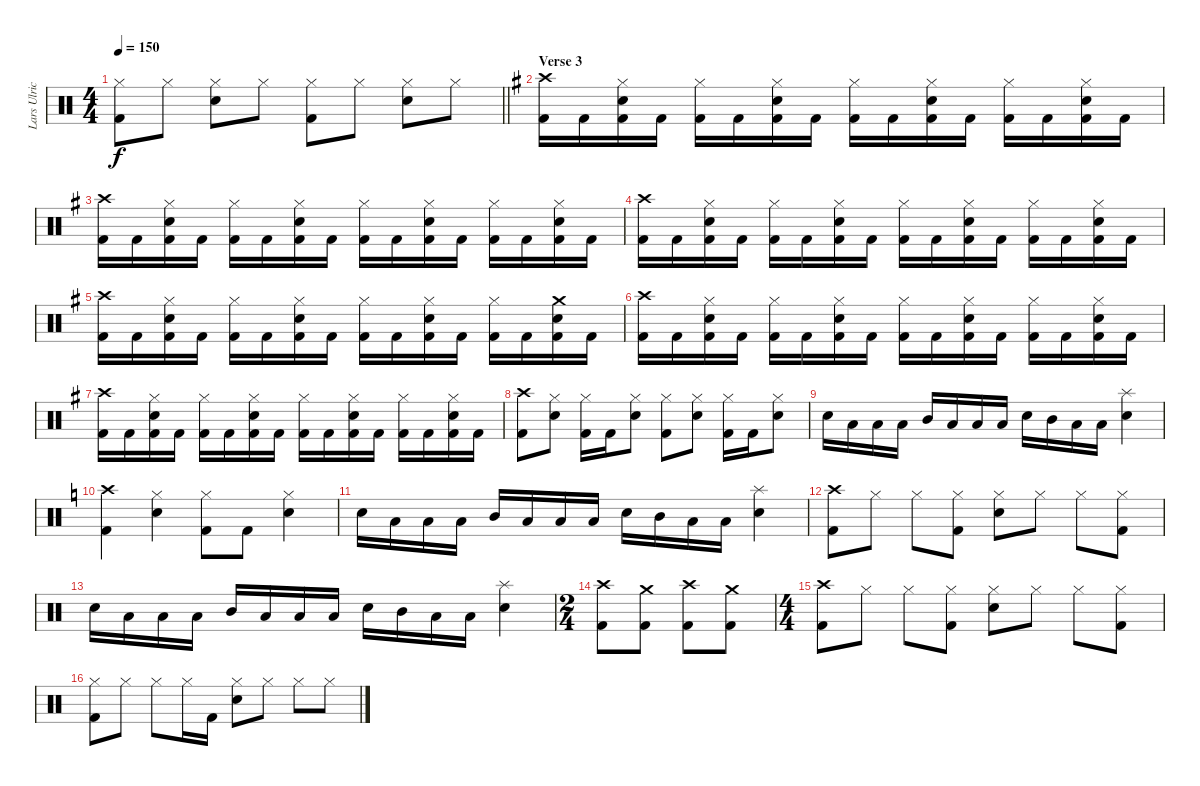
\track ("Lars Ulrich" "Lars Ulric") {instrument percussion}
\staff {score}
\articulation defaults
\ts (4 4)
\tempo 150
\clef neutral
\barLineRight lightlight
\ks c
("Hi-Hat (closed)" "Kick (hit) 2").8{dy f} "Hi-Hat (closed)".8 ("Hi-Hat (closed)" "Snare (hit) 2").8 "Hi-Hat (closed)".8 ("Hi-Hat (closed)" "Kick (hit) 2").8 "Hi-Hat (closed)".8 ("Hi-Hat (closed)" "Snare (hit) 2").8 "Hi-Hat (closed)".8 |
\section ("" "Verse 3")
\ks g
("Crash high (hit)" "Kick (hit) 2").16 "Kick (hit) 2".16 ("Hi-Hat (closed)" "Snare (hit) 2" "Kick (hit) 2").16 "Kick (hit) 2".16 ("Hi-Hat (closed)" "Kick (hit) 2").16 "Kick (hit) 2".16 ("Hi-Hat (closed)" "Snare (hit) 2" "Kick (hit) 2").16 "Kick (hit) 2".16 ("Hi-Hat (closed)" "Kick (hit) 2").16 "Kick (hit) 2".16 ("Hi-Hat (closed)" "Snare (hit) 2" "Kick (hit) 2").16 "Kick (hit) 2".16 ("Hi-Hat (closed)" "Kick (hit) 2").16 "Kick (hit) 2".16 ("Hi-Hat (closed)" "Snare (hit) 2" "Kick (hit) 2").16 "Kick (hit) 2".16 |
("Crash high (hit)" "Kick (hit) 2").16 "Kick (hit) 2".16 ("Hi-Hat (closed)" "Snare (hit) 2" "Kick (hit) 2").16 "Kick (hit) 2".16 ("Hi-Hat (closed)" "Kick (hit) 2").16 "Kick (hit) 2".16 ("Hi-Hat (closed)" "Snare (hit) 2" "Kick (hit) 2").16 "Kick (hit) 2".16 ("Hi-Hat (closed)" "Kick (hit) 2").16 "Kick (hit) 2".16 ("Hi-Hat (closed)" "Snare (hit) 2" "Kick (hit) 2").16 "Kick (hit) 2".16 ("Hi-Hat (closed)" "Kick (hit) 2").16 "Kick (hit) 2".16 ("Hi-Hat (closed)" "Snare (hit) 2" "Kick (hit) 2").16 "Kick (hit) 2".16 |
("Crash high (hit)" "Kick (hit) 2").16 "Kick (hit) 2".16 ("Hi-Hat (closed)" "Snare (hit) 2" "Kick (hit) 2").16 "Kick (hit) 2".16 ("Hi-Hat (closed)" "Kick (hit) 2").16 "Kick (hit) 2".16 ("Hi-Hat (closed)" "Snare (hit) 2" "Kick (hit) 2").16 "Kick (hit) 2".16 ("Hi-Hat (closed)" "Kick (hit) 2").16 "Kick (hit) 2".16 ("Hi-Hat (closed)" "Snare (hit) 2" "Kick (hit) 2").16 "Kick (hit) 2".16 ("Hi-Hat (closed)" "Kick (hit) 2").16 "Kick (hit) 2".16 ("Hi-Hat (closed)" "Snare (hit) 2" "Kick (hit) 2").16 "Kick (hit) 2".16 |
("Crash high (hit)" "Kick (hit) 2").16 "Kick (hit) 2".16 ("Hi-Hat (closed)" "Snare (hit) 2" "Kick (hit) 2").16 "Kick (hit) 2".16 ("Hi-Hat (closed)" "Kick (hit) 2").16 "Kick (hit) 2".16 ("Hi-Hat (closed)" "Snare (hit) 2" "Kick (hit) 2").16 "Kick (hit) 2".16 ("Hi-Hat (closed)" "Kick (hit) 2").16 "Kick (hit) 2".16 ("Hi-Hat (closed)" "Snare (hit) 2" "Kick (hit) 2").16 "Kick (hit) 2".16 ("Hi-Hat (closed)" "Kick (hit) 2").16 "Kick (hit) 2".16 ("Crash medium (hit)" "Snare (hit) 2" "Kick (hit) 2").16 "Kick (hit) 2".16 |
("Crash high (hit)" "Kick (hit) 2").16 "Kick (hit) 2".16 ("Hi-Hat (closed)" "Snare (hit) 2" "Kick (hit) 2").16 "Kick (hit) 2".16 ("Hi-Hat (closed)" "Kick (hit) 2").16 "Kick (hit) 2".16 ("Hi-Hat (closed)" "Snare (hit) 2" "Kick (hit) 2").16 "Kick (hit) 2".16 ("Hi-Hat (closed)" "Kick (hit) 2").16 "Kick (hit) 2".16 ("Hi-Hat (closed)" "Snare (hit) 2" "Kick (hit) 2").16 "Kick (hit) 2".16 ("Hi-Hat (closed)" "Kick (hit) 2").16 "Kick (hit) 2".16 ("Hi-Hat (closed)" "Snare (hit) 2" "Kick (hit) 2").16 "Kick (hit) 2".16 |
("Crash high (hit)" "Kick (hit) 2").16 "Kick (hit) 2".16 ("Hi-Hat (closed)" "Snare (hit) 2" "Kick (hit) 2").16 "Kick (hit) 2".16 ("Hi-Hat (closed)" "Kick (hit) 2").16 "Kick (hit) 2".16 ("Hi-Hat (closed)" "Snare (hit) 2" "Kick (hit) 2").16 "Kick (hit) 2".16 ("Hi-Hat (closed)" "Kick (hit) 2").16 "Kick (hit) 2".16 ("Hi-Hat (closed)" "Snare (hit) 2" "Kick (hit) 2").16 "Kick (hit) 2".16 ("Hi-Hat (closed)" "Kick (hit) 2").16 "Kick (hit) 2".16 ("Hi-Hat (closed)" "Snare (hit) 2" "Kick (hit) 2").16 "Kick (hit) 2".16 |
("Crash high (hit)" "Kick (hit) 2").8 ("Hi-Hat (closed)" "Snare (hit) 2").8 ("Hi-Hat (closed)" "Kick (hit) 2").16 "Kick (hit) 2".16 ("Hi-Hat (closed)" "Snare (hit) 2").8 ("Hi-Hat (closed)" "Kick (hit) 2").8 ("Hi-Hat (closed)" "Snare (hit) 2").8 ("Hi-Hat (closed)" "Kick (hit) 2").16 "Kick (hit) 2".16 ("Hi-Hat (closed)" "Snare (hit) 2").8 |
"Snare (hit) 2".16 "Low Tom (hit)".16 "Low Tom (hit)".16 "Low Tom (hit)".16 "Mid Tom (hit)".16 "Low Tom (hit)".16 "Low Tom (hit)".16 "Low Tom (hit)".16 "Snare (hit) 2".16 "Mid Tom (hit)".16 "Low Tom (hit)".16 "Low Tom (hit)".16 ("Splash (hit)" "Snare (hit) 2").4 |
\ks c
("Crash high (hit)" "Kick (hit) 2").4 ("Hi-Hat (closed)" "Snare (hit) 2").4 ("Hi-Hat (closed)" "Kick (hit) 2").8 "Kick (hit) 2".8 ("Hi-Hat (closed)" "Snare (hit) 2").4 |
"Snare (hit) 2".16 "Low Tom (hit)".16 "Low Tom (hit)".16 "Low Tom (hit)".16 "Mid Tom (hit)".16 "Low Tom (hit)".16 "Low Tom (hit)".16 "Low Tom (hit)".16 "Snare (hit) 2".16 "Mid Tom (hit)".16 "Low Tom (hit)".16 "Low Tom (hit)".16 ("Splash (hit)" "Snare (hit) 2").4 |
("Crash high (hit)" "Kick (hit) 2").8 "Hi-Hat (closed)".8 "Hi-Hat (closed)".8 ("Hi-Hat (closed)" "Kick (hit) 2").8 ("Hi-Hat (closed)" "Snare (hit) 2").8 "Hi-Hat (closed)".8 "Hi-Hat (closed)".8 ("Hi-Hat (closed)" "Kick (hit) 2").8 |
"Snare (hit) 2".16 "Low Tom (hit)".16 "Low Tom (hit)".16 "Low Tom (hit)".16 "Mid Tom (hit)".16 "Low Tom (hit)".16 "Low Tom (hit)".16 "Low Tom (hit)".16 "Snare (hit) 2".16 "Mid Tom (hit)".16 "Low Tom (hit)".16 "Low Tom (hit)".16 ("Splash (hit)" "Snare (hit) 2").4 |
\ts (2 4)
("Crash high (hit)" "Kick (hit) 2").8 ("Crash medium (hit)" "Kick (hit) 2").8 ("Crash high (hit)" "Kick (hit) 2").8 ("Crash medium (hit)" "Kick (hit) 2").8 |
\ts (4 4)
("Crash high (hit)" "Kick (hit) 2").8 "Hi-Hat (closed)".8 "Hi-Hat (closed)".8 ("Hi-Hat (closed)" "Kick (hit) 2").8 ("Hi-Hat (closed)" "Snare (hit) 2").8 "Hi-Hat (closed)".8 "Hi-Hat (closed)".8 ("Hi-Hat (closed)" "Kick (hit) 2").8 |
("Hi-Hat (closed)" "Kick (hit) 2").8 "Hi-Hat (closed)".8 "Hi-Hat (closed)".8 "Hi-Hat (closed)".16 "Kick (hit) 2".16 ("Hi-Hat (closed)" "Snare (hit) 2").8 "Hi-Hat (closed)".8 "Hi-Hat (closed)".8 "Hi-Hat (closed)".8
